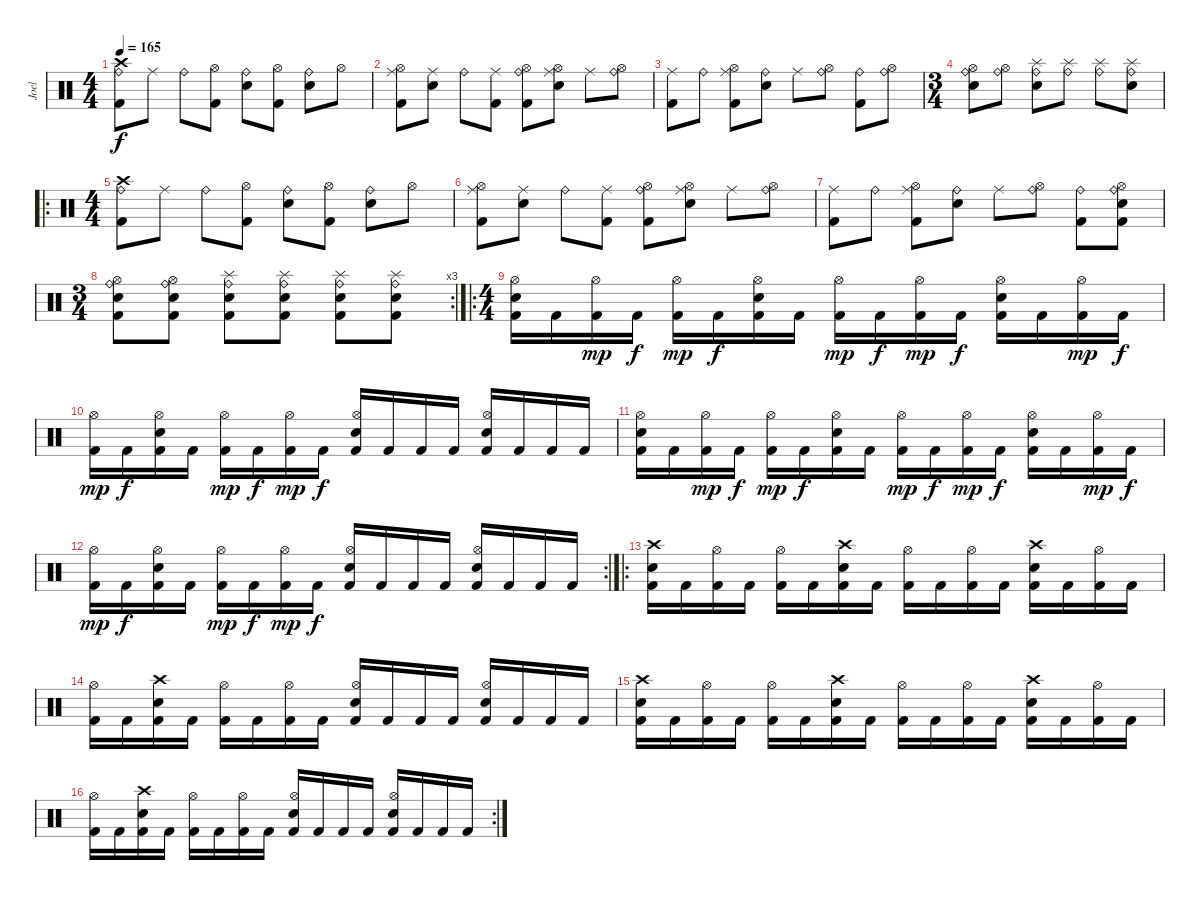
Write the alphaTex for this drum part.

\track ("Joel" "Joel") {instrument percussion}
\staff {score}
\articulation defaults
\ts (4 4)
\tempo 165
\clef neutral
\ks c
("Crash high (hit)" "Ride (bell)" "Kick (hit) 2").8{dy f} "Ride (middle)".8 "Ride (bell)".8 ("Hi-Hat (open)" "Kick (hit) 2").8 ("Ride (bell)" "Electric Snare (hit)").8 ("Hi-Hat (open)" "Kick (hit) 2").8 ("Ride (bell)" "Electric Snare (hit)").8 "Hi-Hat (open)".8 |
("Ride (middle)" "Hi-Hat (open)" "Kick (hit) 2").8 ("Ride (middle)" "Electric Snare (hit)").8 "Ride (bell)".8 ("Ride (middle)" "Kick (hit) 2").8 ("Ride (bell)" "Hi-Hat (open)" "Kick (hit) 2").8 ("Ride (middle)" "Hi-Hat (open)" "Electric Snare (hit)").8 "Ride (middle)".8 ("Ride (bell)" "Hi-Hat (open)").8 |
("Ride (middle)" "Kick (hit) 2").8 "Ride (bell)".8 ("Ride (middle)" "Hi-Hat (open)" "Kick (hit) 2").8 ("Ride (bell)" "Electric Snare (hit)").8 "Ride (middle)".8 ("Ride (bell)" "Hi-Hat (open)").8 ("Ride (bell)" "Kick (hit) 2").8 ("Ride (bell)" "Hi-Hat (open)").8 |
\ts (3 4)
("Ride (bell)" "Hi-Hat (open)" "Electric Snare (hit)").8 ("Ride (bell)" "Hi-Hat (open)").8 ("Ride (bell)" "Splash (hit)" "Electric Snare (hit)").8 ("Ride (bell)" "Splash (hit)").8 ("Ride (bell)" "Splash (hit)").8 ("Ride (bell)" "Splash (hit)" "Electric Snare (hit)").8 |
\ro
\ts (4 4)
("Crash high (hit)" "Ride (bell)" "Kick (hit) 2").8 "Ride (middle)".8 "Ride (bell)".8 ("Hi-Hat (open)" "Kick (hit) 2").8 ("Ride (bell)" "Electric Snare (hit)").8 ("Hi-Hat (open)" "Kick (hit) 2").8 ("Ride (bell)" "Electric Snare (hit)").8 "Hi-Hat (open)".8 |
("Ride (middle)" "Hi-Hat (open)" "Kick (hit) 2").8 ("Ride (middle)" "Electric Snare (hit)").8 "Ride (bell)".8 ("Ride (middle)" "Kick (hit) 2").8 ("Ride (bell)" "Hi-Hat (open)" "Kick (hit) 2").8 ("Ride (middle)" "Hi-Hat (open)" "Electric Snare (hit)").8 "Ride (middle)".8 ("Ride (bell)" "Hi-Hat (open)").8 |
("Ride (middle)" "Kick (hit) 2").8 "Ride (bell)".8 ("Ride (middle)" "Hi-Hat (open)" "Kick (hit) 2").8 ("Ride (bell)" "Electric Snare (hit)").8 "Ride (middle)".8 ("Ride (bell)" "Hi-Hat (open)").8 ("Ride (bell)" "Kick (hit) 2").8 ("Ride (bell)" "Hi-Hat (open)" "Kick (hit) 2" "Electric Snare (hit)").8 |
\rc 3
\ts (3 4)
("Ride (bell)" "Hi-Hat (open)" "Kick (hit) 2" "Electric Snare (hit)").8 ("Ride (bell)" "Hi-Hat (open)" "Kick (hit) 2" "Electric Snare (hit)").8 ("Ride (bell)" "Splash (hit)" "Kick (hit) 2" "Electric Snare (hit)").8 ("Ride (bell)" "Splash (hit)" "Kick (hit) 2" "Electric Snare (hit)").8 ("Ride (bell)" "Splash (hit)" "Kick (hit) 2" "Electric Snare (hit)").8 ("Ride (bell)" "Splash (hit)" "Kick (hit) 2" "Electric Snare (hit)").8 |
\ro
\ts (4 4)
("Hi-Hat (open)" "Electric Snare (hit)" "Kick (hit) 2").16{volume 13} "Kick (hit) 2".16 ("Hi-Hat (open)" "Kick (hit) 2").16{dy mp} "Kick (hit) 2".16{dy f} ("Hi-Hat (open)" "Kick (hit) 2").16{dy mp} "Kick (hit) 2".16{dy f} ("Hi-Hat (open)" "Electric Snare (hit)" "Kick (hit) 2").16 "Kick (hit) 2".16 ("Hi-Hat (open)" "Kick (hit) 2").16{dy mp} "Kick (hit) 2".16{dy f} ("Hi-Hat (open)" "Kick (hit) 2").16{dy mp} "Kick (hit) 2".16{dy f} ("Hi-Hat (open)" "Electric Snare (hit)" "Kick (hit) 2").16 "Kick (hit) 2".16 ("Hi-Hat (open)" "Kick (hit) 2").16{dy mp} "Kick (hit) 2".16{dy f} |
("Hi-Hat (open)" "Kick (hit) 2").16{dy mp} "Kick (hit) 2".16{dy f} ("Hi-Hat (open)" "Electric Snare (hit)" "Kick (hit) 2").16 "Kick (hit) 2".16 ("Hi-Hat (open)" "Kick (hit) 2").16{dy mp} "Kick (hit) 2".16{dy f} ("Hi-Hat (open)" "Kick (hit) 2").16{dy mp} "Kick (hit) 2".16{dy f} ("Hi-Hat (open)" "Electric Snare (hit)" "Kick (hit) 2").16 "Kick (hit) 2".16 "Kick (hit) 2".16 "Kick (hit) 2".16 ("Hi-Hat (open)" "Electric Snare (hit)" "Kick (hit) 2").16 "Kick (hit) 2".16 "Kick (hit) 2".16 "Kick (hit) 2".16 |
("Hi-Hat (open)" "Electric Snare (hit)" "Kick (hit) 2").16 "Kick (hit) 2".16 ("Hi-Hat (open)" "Kick (hit) 2").16{dy mp} "Kick (hit) 2".16{dy f} ("Hi-Hat (open)" "Kick (hit) 2").16{dy mp} "Kick (hit) 2".16{dy f} ("Hi-Hat (open)" "Electric Snare (hit)" "Kick (hit) 2").16 "Kick (hit) 2".16 ("Hi-Hat (open)" "Kick (hit) 2").16{dy mp} "Kick (hit) 2".16{dy f} ("Hi-Hat (open)" "Kick (hit) 2").16{dy mp} "Kick (hit) 2".16{dy f} ("Hi-Hat (open)" "Electric Snare (hit)" "Kick (hit) 2").16 "Kick (hit) 2".16 ("Hi-Hat (open)" "Kick (hit) 2").16{dy mp} "Kick (hit) 2".16{dy f} |
\rc 2
("Hi-Hat (open)" "Kick (hit) 2").16{dy mp} "Kick (hit) 2".16{dy f} ("Hi-Hat (open)" "Electric Snare (hit)" "Kick (hit) 2").16 "Kick (hit) 2".16 ("Hi-Hat (open)" "Kick (hit) 2").16{dy mp} "Kick (hit) 2".16{dy f} ("Hi-Hat (open)" "Kick (hit) 2").16{dy mp} "Kick (hit) 2".16{dy f} ("Hi-Hat (open)" "Electric Snare (hit)" "Kick (hit) 2").16 "Kick (hit) 2".16 "Kick (hit) 2".16 "Kick (hit) 2".16 ("Hi-Hat (open)" "Electric Snare (hit)" "Kick (hit) 2").16 "Kick (hit) 2".16 "Kick (hit) 2".16 "Kick (hit) 2".16 |
\ro
("Crash high (hit)" "Electric Snare (hit)" "Kick (hit) 2").16{volume 13} "Kick (hit) 2".16 ("Hi-Hat (open)" "Kick (hit) 2").16 "Kick (hit) 2".16 ("Hi-Hat (open)" "Kick (hit) 2").16 "Kick (hit) 2".16 ("Crash high (hit)" "Electric Snare (hit)" "Kick (hit) 2").16 "Kick (hit) 2".16 ("Hi-Hat (open)" "Kick (hit) 2").16 "Kick (hit) 2".16 ("Hi-Hat (open)" "Kick (hit) 2").16 "Kick (hit) 2".16 ("Crash high (hit)" "Electric Snare (hit)" "Kick (hit) 2").16 "Kick (hit) 2".16 ("Hi-Hat (open)" "Kick (hit) 2").16 "Kick (hit) 2".16 |
("Hi-Hat (open)" "Kick (hit) 2").16 "Kick (hit) 2".16 ("Crash high (hit)" "Electric Snare (hit)" "Kick (hit) 2").16 "Kick (hit) 2".16 ("Hi-Hat (open)" "Kick (hit) 2").16 "Kick (hit) 2".16 ("Hi-Hat (open)" "Kick (hit) 2").16 "Kick (hit) 2".16 ("Hi-Hat (open)" "Electric Snare (hit)" "Kick (hit) 2").16 "Kick (hit) 2".16 "Kick (hit) 2".16 "Kick (hit) 2".16 ("Hi-Hat (open)" "Electric Snare (hit)" "Kick (hit) 2").16 "Kick (hit) 2".16 "Kick (hit) 2".16 "Kick (hit) 2".16 |
("Crash high (hit)" "Electric Snare (hit)" "Kick (hit) 2").16 "Kick (hit) 2".16 ("Hi-Hat (open)" "Kick (hit) 2").16 "Kick (hit) 2".16 ("Hi-Hat (open)" "Kick (hit) 2").16 "Kick (hit) 2".16 ("Crash high (hit)" "Electric Snare (hit)" "Kick (hit) 2").16 "Kick (hit) 2".16 ("Hi-Hat (open)" "Kick (hit) 2").16 "Kick (hit) 2".16 ("Hi-Hat (open)" "Kick (hit) 2").16 "Kick (hit) 2".16 ("Crash high (hit)" "Electric Snare (hit)" "Kick (hit) 2").16 "Kick (hit) 2".16 ("Hi-Hat (open)" "Kick (hit) 2").16 "Kick (hit) 2".16 |
\rc 2
("Hi-Hat (open)" "Kick (hit) 2").16 "Kick (hit) 2".16 ("Crash high (hit)" "Electric Snare (hit)" "Kick (hit) 2").16 "Kick (hit) 2".16 ("Hi-Hat (open)" "Kick (hit) 2").16 "Kick (hit) 2".16 ("Hi-Hat (open)" "Kick (hit) 2").16 "Kick (hit) 2".16 ("Hi-Hat (open)" "Electric Snare (hit)" "Kick (hit) 2").16 "Kick (hit) 2".16 "Kick (hit) 2".16 "Kick (hit) 2".16 ("Hi-Hat (open)" "Electric Snare (hit)" "Kick (hit) 2").16 "Kick (hit) 2".16 "Kick (hit) 2".16 "Kick (hit) 2".16
